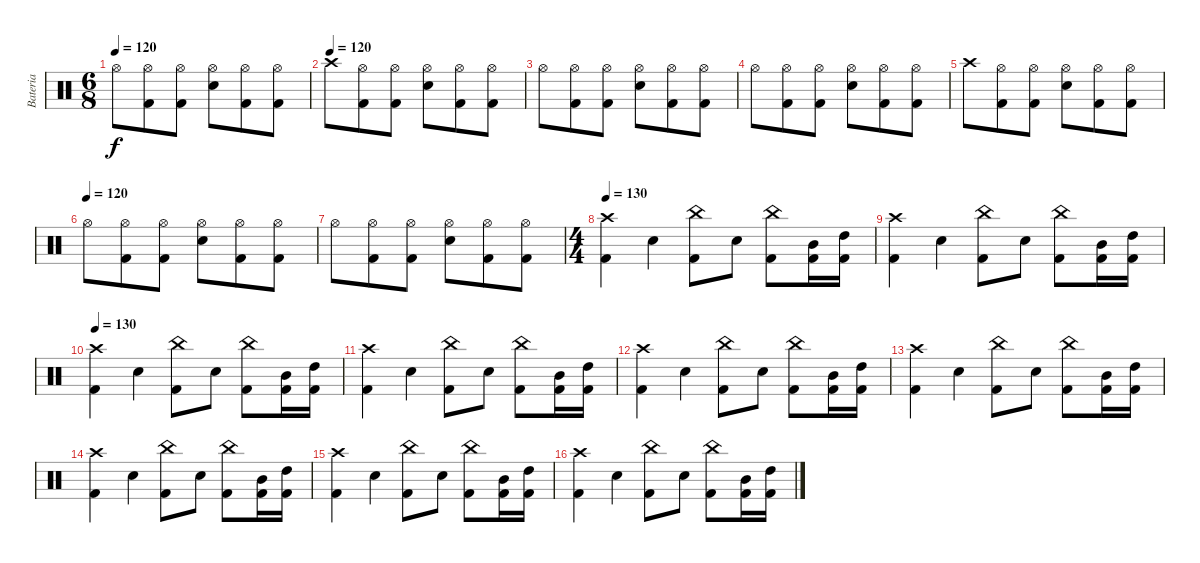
\track ("Bateria" "Bateria") {instrument percussion}
\staff {score}
\articulation defaults
\ts (6 8)
\tempo 120
\clef neutral
\ks c "Hi-Hat (open)".8{dy f}
("Hi-Hat (open)" "Kick (hit) 2").8 ("Hi-Hat (open)" "Kick (hit) 2").8 ("Hi-Hat (open)" "Electric Snare (hit)").8 ("Hi-Hat (open)" "Kick (hit) 2").8 ("Hi-Hat (open)" "Kick (hit) 2").8 |
\tempo (120)
"Crash high (hit)".8 ("Hi-Hat (open)" "Kick (hit) 2").8 ("Hi-Hat (open)" "Kick (hit) 2").8 ("Hi-Hat (open)" "Electric Snare (hit)").8 ("Hi-Hat (open)" "Kick (hit) 2").8 ("Hi-Hat (open)" "Kick (hit) 2").8 |
"Hi-Hat (open)".8 ("Hi-Hat (open)" "Kick (hit) 2").8 ("Hi-Hat (open)" "Kick (hit) 2").8 ("Hi-Hat (open)" "Electric Snare (hit)").8 ("Hi-Hat (open)" "Kick (hit) 2").8 ("Hi-Hat (open)" "Kick (hit) 2").8 |
"Hi-Hat (open)".8 ("Hi-Hat (open)" "Kick (hit) 2").8 ("Hi-Hat (open)" "Kick (hit) 2").8 ("Hi-Hat (open)" "Electric Snare (hit)").8 ("Hi-Hat (open)" "Kick (hit) 2").8 ("Hi-Hat (open)" "Kick (hit) 2").8 |
"Crash high (hit)".8 ("Hi-Hat (open)" "Kick (hit) 2").8 ("Hi-Hat (open)" "Kick (hit) 2").8 ("Hi-Hat (open)" "Electric Snare (hit)").8 ("Hi-Hat (open)" "Kick (hit) 2").8 ("Hi-Hat (open)" "Kick (hit) 2").8 |
\tempo (120)
"Hi-Hat (open)".8 ("Hi-Hat (open)" "Kick (hit) 2").8 ("Hi-Hat (open)" "Kick (hit) 2").8 ("Hi-Hat (open)" "Electric Snare (hit)").8 ("Hi-Hat (open)" "Kick (hit) 2").8 ("Hi-Hat (open)" "Kick (hit) 2").8 |
"Hi-Hat (open)".8 ("Hi-Hat (open)" "Kick (hit) 2").8 ("Hi-Hat (open)" "Kick (hit) 2").8 ("Hi-Hat (open)" "Electric Snare (hit)").8 ("Hi-Hat (open)" "Kick (hit) 2").8 ("Hi-Hat (open)" "Kick (hit) 2").8 |
\ts (4 4)
\tempo 130
("Kick (hit) 2" "Crash high (hit)").4 "Electric Snare (hit)".4 ("China (hit)" "Kick (hit) 2").8 "Electric Snare (hit)".8 ("China (hit)" "Kick (hit) 2").8 ("Mid Tom (hit)" "Kick (hit) 2").16 ("High Tom (hit)" "Kick (hit) 2").16 |
("Kick (hit) 2" "Crash high (hit)").4 "Electric Snare (hit)".4 ("China (hit)" "Kick (hit) 2").8 "Electric Snare (hit)".8 ("China (hit)" "Kick (hit) 2").8 ("Mid Tom (hit)" "Kick (hit) 2").16 ("High Tom (hit)" "Kick (hit) 2").16 |
\tempo 130
("Kick (hit) 2" "Crash high (hit)").4 "Electric Snare (hit)".4 ("China (hit)" "Kick (hit) 2").8 "Electric Snare (hit)".8 ("China (hit)" "Kick (hit) 2").8 ("Mid Tom (hit)" "Kick (hit) 2").16 ("High Tom (hit)" "Kick (hit) 2").16 |
("Kick (hit) 2" "Crash high (hit)").4 "Electric Snare (hit)".4 ("China (hit)" "Kick (hit) 2").8 "Electric Snare (hit)".8 ("China (hit)" "Kick (hit) 2").8 ("Mid Tom (hit)" "Kick (hit) 2").16 ("High Tom (hit)" "Kick (hit) 2").16 |
("Kick (hit) 2" "Crash high (hit)").4 "Electric Snare (hit)".4 ("China (hit)" "Kick (hit) 2").8 "Electric Snare (hit)".8 ("China (hit)" "Kick (hit) 2").8 ("Mid Tom (hit)" "Kick (hit) 2").16 ("High Tom (hit)" "Kick (hit) 2").16 |
("Kick (hit) 2" "Crash high (hit)").4 "Electric Snare (hit)".4 ("China (hit)" "Kick (hit) 2").8 "Electric Snare (hit)".8 ("China (hit)" "Kick (hit) 2").8 ("Mid Tom (hit)" "Kick (hit) 2").16 ("High Tom (hit)" "Kick (hit) 2").16 |
("Kick (hit) 2" "Crash high (hit)").4 "Electric Snare (hit)".4 ("China (hit)" "Kick (hit) 2").8 "Electric Snare (hit)".8 ("China (hit)" "Kick (hit) 2").8 ("Mid Tom (hit)" "Kick (hit) 2").16 ("High Tom (hit)" "Kick (hit) 2").16 |
("Kick (hit) 2" "Crash high (hit)").4 "Electric Snare (hit)".4 ("China (hit)" "Kick (hit) 2").8 "Electric Snare (hit)".8 ("China (hit)" "Kick (hit) 2").8 ("Mid Tom (hit)" "Kick (hit) 2").16 ("High Tom (hit)" "Kick (hit) 2").16 |
("Kick (hit) 2" "Crash high (hit)").4 "Electric Snare (hit)".4 ("China (hit)" "Kick (hit) 2").8 "Electric Snare (hit)".8 ("China (hit)" "Kick (hit) 2").8 ("Mid Tom (hit)" "Kick (hit) 2").16 ("High Tom (hit)" "Kick (hit) 2").16
